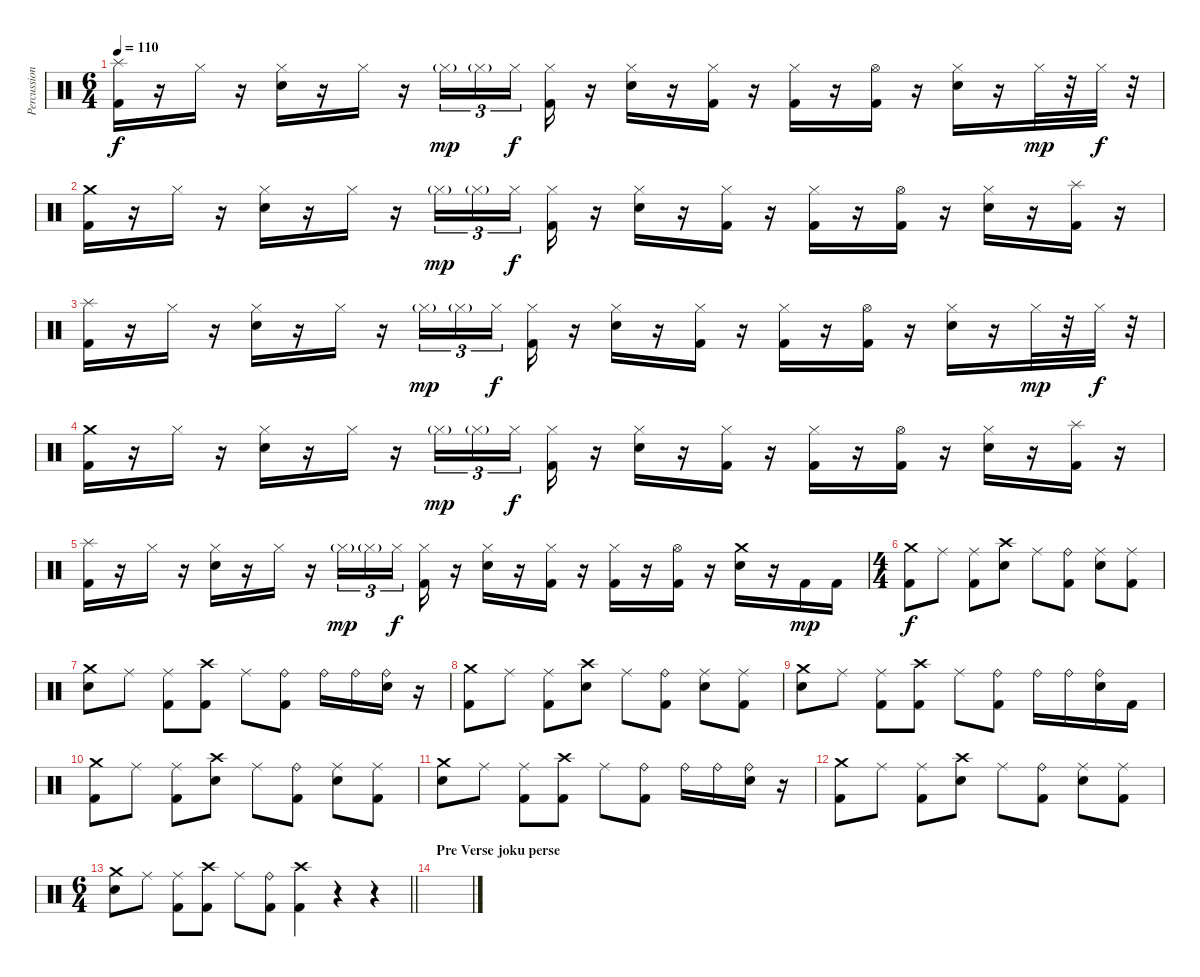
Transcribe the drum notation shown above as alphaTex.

\track ("Percussion" "Percussion") {instrument percussion}
\staff {score}
\articulation defaults
\ts (6 4)
\tempo 110
\clef neutral
\ks c
("Splash (hit)" "Kick (hit) 2").16{dy f} r.16 "Hi-Hat (closed)".16 r.16 ("Hi-Hat (closed)" "Electric Snare (hit)").16 r.16 "Hi-Hat (closed)".16 r.16 "Hi-Hat (closed)"{g}.16{tu (3 2) dy mp} "Hi-Hat (closed)"{g}.16{tu (3 2)} "Hi-Hat (closed)".16{tu (3 2) dy f beam splitsecondary} ("Hi-Hat (closed)" "Kick (hit) 2").16 r.16 ("Hi-Hat (closed)" "Electric Snare (hit)").16 r.16 ("Hi-Hat (closed)" "Kick (hit) 2").16 r.16 ("Hi-Hat (closed)" "Kick (hit) 2").16 r.16 ("Hi-Hat (open)" "Kick (hit) 2").16 r.16 ("Hi-Hat (closed)" "Electric Snare (hit)").16 r.16 "Hi-Hat (closed)".32{dy mp} r.32 "Hi-Hat (closed)".32{dy f} r.32 |
("Crash medium (hit)" "Kick (hit) 2").16 r.16 "Hi-Hat (closed)".16 r.16 ("Hi-Hat (closed)" "Electric Snare (hit)").16 r.16 "Hi-Hat (closed)".16 r.16 "Hi-Hat (closed)"{g}.16{tu (3 2) dy mp} "Hi-Hat (closed)"{g}.16{tu (3 2)} "Hi-Hat (closed)".16{tu (3 2) dy f beam splitsecondary} ("Hi-Hat (closed)" "Kick (hit) 2").16 r.16 ("Hi-Hat (closed)" "Electric Snare (hit)").16 r.16 ("Hi-Hat (closed)" "Kick (hit) 2").16 r.16 ("Hi-Hat (closed)" "Kick (hit) 2").16 r.16 ("Hi-Hat (open)" "Kick (hit) 2").16 r.16 ("Hi-Hat (closed)" "Electric Snare (hit)").16 r.16 ("Splash (hit)" "Kick (hit) 2").16 r.16 |
("Splash (hit)" "Kick (hit) 2").16 r.16 "Hi-Hat (closed)".16 r.16 ("Hi-Hat (closed)" "Electric Snare (hit)").16 r.16 "Hi-Hat (closed)".16 r.16 "Hi-Hat (closed)"{g}.16{tu (3 2) dy mp} "Hi-Hat (closed)"{g}.16{tu (3 2)} "Hi-Hat (closed)".16{tu (3 2) dy f beam splitsecondary} ("Hi-Hat (closed)" "Kick (hit) 2").16 r.16 ("Hi-Hat (closed)" "Electric Snare (hit)").16 r.16 ("Hi-Hat (closed)" "Kick (hit) 2").16 r.16 ("Hi-Hat (closed)" "Kick (hit) 2").16 r.16 ("Hi-Hat (open)" "Kick (hit) 2").16 r.16 ("Hi-Hat (closed)" "Electric Snare (hit)").16 r.16 "Hi-Hat (closed)".32{dy mp} r.32 "Hi-Hat (closed)".32{dy f} r.32 |
("Crash medium (hit)" "Kick (hit) 2").16 r.16 "Hi-Hat (closed)".16 r.16 ("Hi-Hat (closed)" "Electric Snare (hit)").16 r.16 "Hi-Hat (closed)".16 r.16 "Hi-Hat (closed)"{g}.16{tu (3 2) dy mp} "Hi-Hat (closed)"{g}.16{tu (3 2)} "Hi-Hat (closed)".16{tu (3 2) dy f beam splitsecondary} ("Hi-Hat (closed)" "Kick (hit) 2").16 r.16 ("Hi-Hat (closed)" "Electric Snare (hit)").16 r.16 ("Hi-Hat (closed)" "Kick (hit) 2").16 r.16 ("Hi-Hat (closed)" "Kick (hit) 2").16 r.16 ("Hi-Hat (open)" "Kick (hit) 2").16 r.16 ("Hi-Hat (closed)" "Electric Snare (hit)").16 r.16 ("Splash (hit)" "Kick (hit) 2").16 r.16 |
("Splash (hit)" "Kick (hit) 2").16 r.16 "Hi-Hat (closed)".16 r.16 ("Hi-Hat (closed)" "Electric Snare (hit)").16 r.16 "Hi-Hat (closed)".16 r.16 "Hi-Hat (closed)"{g}.16{tu (3 2) dy mp} "Hi-Hat (closed)"{g}.16{tu (3 2)} "Hi-Hat (closed)".16{tu (3 2) dy f beam splitsecondary} ("Hi-Hat (closed)" "Kick (hit) 2").16 r.16 ("Hi-Hat (closed)" "Electric Snare (hit)").16 r.16 ("Hi-Hat (closed)" "Kick (hit) 2").16 r.16 ("Hi-Hat (closed)" "Kick (hit) 2").16 r.16 ("Hi-Hat (open)" "Kick (hit) 2").16 r.16 ("Crash medium (hit)" "Electric Snare (hit)").16 r.16 "Kick (hit) 2".16{dy mp} "Kick (hit) 2".16 |
\ts (4 4)
("Crash medium (hit)" "Kick (hit) 2").8{dy f} "Ride (middle)".8 ("Ride (middle)" "Kick (hit) 2").8 ("Crash high (hit)" "Electric Snare (hit)").8 "Ride (middle)".8 ("Ride (bell)" "Kick (hit) 2").8 ("Ride (middle)" "Electric Snare (hit)").8 ("Ride (middle)" "Kick (hit) 2").8 |
("Crash medium (hit)" "Electric Snare (hit)").8 "Ride (middle)".8 ("Ride (middle)" "Kick (hit) 2").8 ("Crash high (hit)" "Kick (hit) 2").8 "Ride (middle)".8 ("Ride (bell)" "Kick (hit) 2").8 "Ride (bell)".16 "Ride (bell)".16 ("Ride (bell)" "Electric Snare (hit)").16 r.16 |
("Crash medium (hit)" "Kick (hit) 2").8 "Ride (middle)".8 ("Ride (middle)" "Kick (hit) 2").8 ("Crash high (hit)" "Electric Snare (hit)").8 "Ride (middle)".8 ("Ride (bell)" "Kick (hit) 2").8 ("Ride (middle)" "Electric Snare (hit)").8 ("Ride (middle)" "Kick (hit) 2").8 |
("Crash medium (hit)" "Electric Snare (hit)").8 "Ride (middle)".8 ("Ride (middle)" "Kick (hit) 2").8 ("Crash high (hit)" "Kick (hit) 2").8 "Ride (middle)".8 ("Ride (bell)" "Kick (hit) 2").8 "Ride (bell)".16 "Ride (bell)".16 ("Ride (bell)" "Electric Snare (hit)").16 "Kick (hit) 2".16 |
("Crash medium (hit)" "Kick (hit) 2").8 "Ride (middle)".8 ("Ride (middle)" "Kick (hit) 2").8 ("Crash high (hit)" "Electric Snare (hit)").8 "Ride (middle)".8 ("Ride (bell)" "Kick (hit) 2").8 ("Ride (middle)" "Electric Snare (hit)").8 ("Ride (middle)" "Kick (hit) 2").8 |
("Crash medium (hit)" "Electric Snare (hit)").8 "Ride (middle)".8 ("Ride (middle)" "Kick (hit) 2").8 ("Crash high (hit)" "Kick (hit) 2").8 "Ride (middle)".8 ("Ride (bell)" "Kick (hit) 2").8 "Ride (bell)".16 "Ride (bell)".16 ("Ride (bell)" "Electric Snare (hit)").16 r.16 |
("Crash medium (hit)" "Kick (hit) 2").8 "Ride (middle)".8 ("Ride (middle)" "Kick (hit) 2").8 ("Crash high (hit)" "Electric Snare (hit)").8 "Ride (middle)".8 ("Ride (bell)" "Kick (hit) 2").8 ("Ride (middle)" "Electric Snare (hit)").8 ("Ride (middle)" "Kick (hit) 2").8 |
\ts (6 4)
\barLineRight lightlight
("Crash medium (hit)" "Electric Snare (hit)").8 "Ride (middle)".8 ("Ride (middle)" "Kick (hit) 2").8 ("Crash high (hit)" "Kick (hit) 2").8 "Ride (middle)".8 ("Ride (bell)" "Kick (hit) 2").8 ("Crash high (hit)" "Kick (hit) 2").4 r.4 r.4 |
\section ("" "Pre Verse joku perse")
